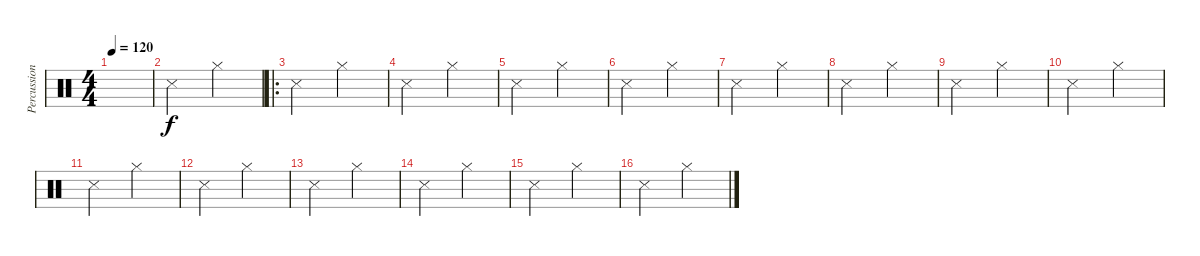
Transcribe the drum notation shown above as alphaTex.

\track ("Percussions" "Percussion") {instrument percussion}
\staff {score}
\articulation defaults
\ts (4 4)
\tempo 120
\clef neutral
\ks c
|
"Snare (side stick) 3".2 "Hi-Hat (closed)".2 |
\ro "Snare (side stick) 3".2 "Hi-Hat (closed)".2
|
"Snare (side stick) 3".2 "Hi-Hat (closed)".2 |
"Snare (side stick) 3".2 "Hi-Hat (closed)".2 |
"Snare (side stick) 3".2 "Hi-Hat (closed)".2 |
"Snare (side stick) 3".2 "Hi-Hat (closed)".2 |
"Snare (side stick) 3".2 "Hi-Hat (closed)".2 |
"Snare (side stick) 3".2 "Hi-Hat (closed)".2 |
"Snare (side stick) 3".2 "Hi-Hat (closed)".2 |
"Snare (side stick) 3".2 "Hi-Hat (closed)".2 |
"Snare (side stick) 3".2 "Hi-Hat (closed)".2 |
"Snare (side stick) 3".2 "Hi-Hat (closed)".2 |
"Snare (side stick) 3".2 "Hi-Hat (closed)".2 |
"Snare (side stick) 3".2 "Hi-Hat (closed)".2 |
"Snare (side stick) 3".2 "Hi-Hat (closed)".2
